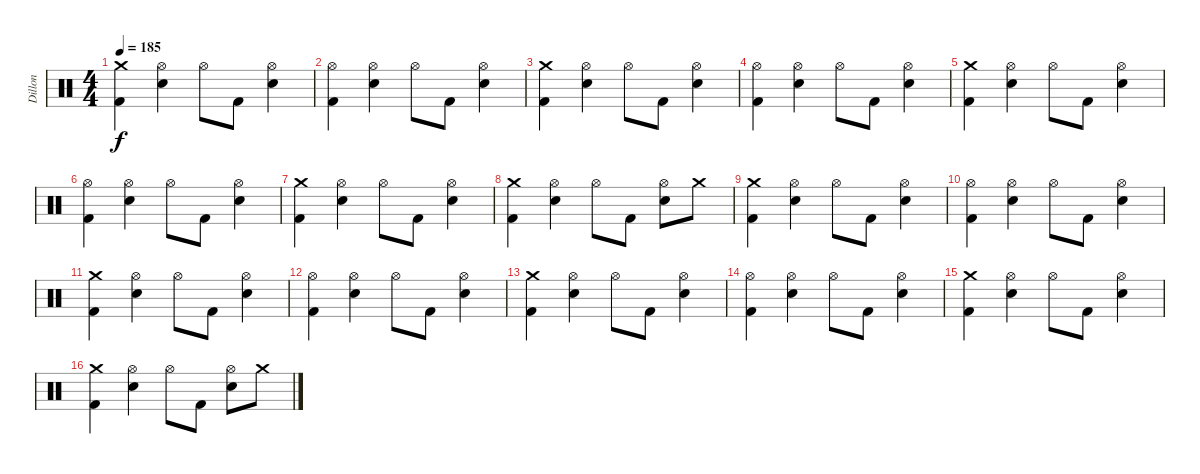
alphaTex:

\track ("Dillon" "Dillon") {instrument percussion}
\staff {score}
\articulation defaults
\ts (4 4)
\tempo 185
\clef neutral
\ks c
("Crash medium (hit)" "Kick (hit) 2").4{dy f} ("Hi-Hat (open)" "Electric Snare (hit)").4 "Hi-Hat (open)".8 "Kick (hit) 2".8 ("Hi-Hat (open)" "Electric Snare (hit)").4 |
("Hi-Hat (open)" "Kick (hit) 2").4 ("Hi-Hat (open)" "Electric Snare (hit)").4 "Hi-Hat (open)".8 "Kick (hit) 2".8 ("Hi-Hat (open)" "Electric Snare (hit)").4 |
("Crash medium (hit)" "Kick (hit) 2").4 ("Hi-Hat (open)" "Electric Snare (hit)").4 "Hi-Hat (open)".8 "Kick (hit) 2".8 ("Hi-Hat (open)" "Electric Snare (hit)").4 |
("Hi-Hat (open)" "Kick (hit) 2").4 ("Hi-Hat (open)" "Electric Snare (hit)").4 "Hi-Hat (open)".8 "Kick (hit) 2".8 ("Hi-Hat (open)" "Electric Snare (hit)").4 |
("Crash medium (hit)" "Kick (hit) 2").4 ("Hi-Hat (open)" "Electric Snare (hit)").4 "Hi-Hat (open)".8 "Kick (hit) 2".8 ("Hi-Hat (open)" "Electric Snare (hit)").4 |
("Hi-Hat (open)" "Kick (hit) 2").4 ("Hi-Hat (open)" "Electric Snare (hit)").4 "Hi-Hat (open)".8 "Kick (hit) 2".8 ("Hi-Hat (open)" "Electric Snare (hit)").4 |
("Crash medium (hit)" "Kick (hit) 2").4 ("Hi-Hat (open)" "Electric Snare (hit)").4 "Hi-Hat (open)".8 "Kick (hit) 2".8 ("Hi-Hat (open)" "Electric Snare (hit)").4 |
("Crash medium (hit)" "Kick (hit) 2").4 ("Hi-Hat (open)" "Electric Snare (hit)").4 "Hi-Hat (open)".8 "Kick (hit) 2".8 ("Hi-Hat (open)" "Electric Snare (hit)").8 "Crash medium (hit)".8 |
("Crash medium (hit)" "Kick (hit) 2").4 ("Hi-Hat (open)" "Electric Snare (hit)").4 "Hi-Hat (open)".8 "Kick (hit) 2".8 ("Hi-Hat (open)" "Electric Snare (hit)").4 |
("Hi-Hat (open)" "Kick (hit) 2").4 ("Hi-Hat (open)" "Electric Snare (hit)").4 "Hi-Hat (open)".8 "Kick (hit) 2".8 ("Hi-Hat (open)" "Electric Snare (hit)").4 |
("Crash medium (hit)" "Kick (hit) 2").4 ("Hi-Hat (open)" "Electric Snare (hit)").4 "Hi-Hat (open)".8 "Kick (hit) 2".8 ("Hi-Hat (open)" "Electric Snare (hit)").4 |
("Hi-Hat (open)" "Kick (hit) 2").4 ("Hi-Hat (open)" "Electric Snare (hit)").4 "Hi-Hat (open)".8 "Kick (hit) 2".8 ("Hi-Hat (open)" "Electric Snare (hit)").4 |
("Crash medium (hit)" "Kick (hit) 2").4 ("Hi-Hat (open)" "Electric Snare (hit)").4 "Hi-Hat (open)".8 "Kick (hit) 2".8 ("Hi-Hat (open)" "Electric Snare (hit)").4 |
("Hi-Hat (open)" "Kick (hit) 2").4 ("Hi-Hat (open)" "Electric Snare (hit)").4 "Hi-Hat (open)".8 "Kick (hit) 2".8 ("Hi-Hat (open)" "Electric Snare (hit)").4 |
("Crash medium (hit)" "Kick (hit) 2").4 ("Hi-Hat (open)" "Electric Snare (hit)").4 "Hi-Hat (open)".8 "Kick (hit) 2".8 ("Hi-Hat (open)" "Electric Snare (hit)").4 |
("Crash medium (hit)" "Kick (hit) 2").4 ("Hi-Hat (open)" "Electric Snare (hit)").4 "Hi-Hat (open)".8 "Kick (hit) 2".8 ("Hi-Hat (open)" "Electric Snare (hit)").8 "Crash medium (hit)".8
